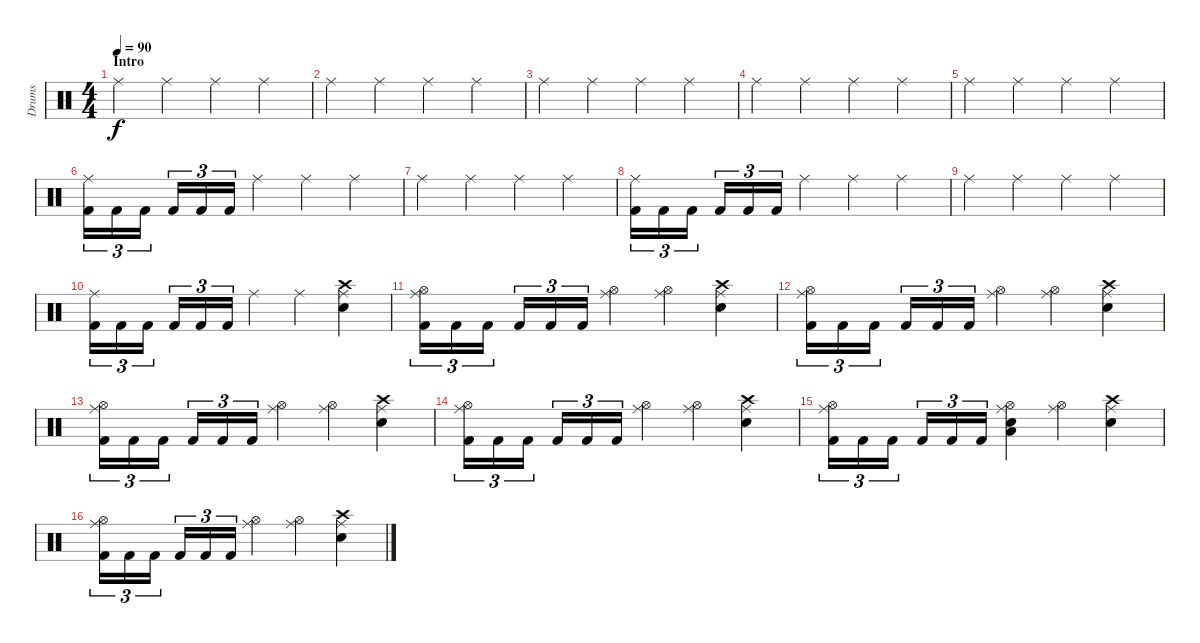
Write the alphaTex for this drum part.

\track ("Drums" "Drums") {instrument percussion}
\staff {score}
\articulation defaults
\ts (4 4)
\section ("" "Intro")
\tempo 90
\clef neutral
\ks c "Ride (middle)".4{dy f} "Ride (middle)".4 "Ride (middle)".4 "Ride (middle)".4
|
"Ride (middle)".4 "Ride (middle)".4 "Ride (middle)".4 "Ride (middle)".4 |
"Ride (middle)".4 "Ride (middle)".4 "Ride (middle)".4 "Ride (middle)".4 |
"Ride (middle)".4 "Ride (middle)".4 "Ride (middle)".4 "Ride (middle)".4 |
"Ride (middle)".4 "Ride (middle)".4 "Ride (middle)".4 "Ride (middle)".4 |
("Kick (hit) 2" "Ride (middle)").16{tu (3 2)} "Kick (hit) 2".16{tu (3 2)} "Kick (hit) 2".16{tu (3 2) beam splitsecondary} "Kick (hit) 2".16{tu (3 2)} "Kick (hit) 2".16{tu (3 2)} "Kick (hit) 2".16{tu (3 2)} "Ride (middle)".4 "Ride (middle)".4 "Ride (middle)".4 |
"Ride (middle)".4 "Ride (middle)".4 "Ride (middle)".4 "Ride (middle)".4 |
("Kick (hit) 2" "Ride (middle)").16{tu (3 2)} "Kick (hit) 2".16{tu (3 2)} "Kick (hit) 2".16{tu (3 2) beam splitsecondary} "Kick (hit) 2".16{tu (3 2)} "Kick (hit) 2".16{tu (3 2)} "Kick (hit) 2".16{tu (3 2)} "Ride (middle)".4 "Ride (middle)".4 "Ride (middle)".4 |
"Ride (middle)".4 "Ride (middle)".4 "Ride (middle)".4 "Ride (middle)".4 |
("Kick (hit) 2" "Ride (middle)").16{tu (3 2)} "Kick (hit) 2".16{tu (3 2)} "Kick (hit) 2".16{tu (3 2) beam splitsecondary} "Kick (hit) 2".16{tu (3 2)} "Kick (hit) 2".16{tu (3 2)} "Kick (hit) 2".16{tu (3 2)} "Ride (middle)".4 "Ride (middle)".4 ("Snare (hit) 2" "Ride (middle)" "Crash high (hit)").4 |
("Kick (hit) 2" "Ride (middle)" "Hi-Hat (open)").16{tu (3 2)} "Kick (hit) 2".16{tu (3 2)} "Kick (hit) 2".16{tu (3 2) beam splitsecondary} "Kick (hit) 2".16{tu (3 2)} "Kick (hit) 2".16{tu (3 2)} "Kick (hit) 2".16{tu (3 2)} ("Ride (middle)" "Hi-Hat (open)").4 ("Ride (middle)" "Hi-Hat (open)").4 ("Snare (hit) 2" "Ride (middle)" "Crash high (hit)").4 |
("Kick (hit) 2" "Ride (middle)" "Hi-Hat (open)").16{tu (3 2)} "Kick (hit) 2".16{tu (3 2)} "Kick (hit) 2".16{tu (3 2) beam splitsecondary} "Kick (hit) 2".16{tu (3 2)} "Kick (hit) 2".16{tu (3 2)} "Kick (hit) 2".16{tu (3 2)} ("Ride (middle)" "Hi-Hat (open)").4 ("Ride (middle)" "Hi-Hat (open)").4 ("Snare (hit) 2" "Ride (middle)" "Crash high (hit)").4 |
("Kick (hit) 2" "Ride (middle)" "Hi-Hat (open)").16{tu (3 2)} "Kick (hit) 2".16{tu (3 2)} "Kick (hit) 2".16{tu (3 2) beam splitsecondary} "Kick (hit) 2".16{tu (3 2)} "Kick (hit) 2".16{tu (3 2)} "Kick (hit) 2".16{tu (3 2)} ("Ride (middle)" "Hi-Hat (open)").4 ("Ride (middle)" "Hi-Hat (open)").4 ("Snare (hit) 2" "Ride (middle)" "Crash high (hit)").4 |
("Kick (hit) 2" "Ride (middle)" "Hi-Hat (open)").16{tu (3 2)} "Kick (hit) 2".16{tu (3 2)} "Kick (hit) 2".16{tu (3 2) beam splitsecondary} "Kick (hit) 2".16{tu (3 2)} "Kick (hit) 2".16{tu (3 2)} "Kick (hit) 2".16{tu (3 2)} ("Ride (middle)" "Hi-Hat (open)").4 ("Ride (middle)" "Hi-Hat (open)").4 ("Snare (hit) 2" "Ride (middle)" "Crash high (hit)").4 |
("Kick (hit) 2" "Ride (middle)" "Hi-Hat (open)").16{tu (3 2)} "Kick (hit) 2".16{tu (3 2)} "Kick (hit) 2".16{tu (3 2) beam splitsecondary} "Kick (hit) 2".16{tu (3 2)} "Kick (hit) 2".16{tu (3 2)} "Kick (hit) 2".16{tu (3 2)} ("Snare (hit) 2" "Ride (middle)" "Hi-Hat (open)" "Low Floor Tom (hit)").4 ("Ride (middle)" "Hi-Hat (open)").4 ("Snare (hit) 2" "Ride (middle)" "Crash high (hit)").4 |
("Kick (hit) 2" "Ride (middle)" "Hi-Hat (open)").16{tu (3 2)} "Kick (hit) 2".16{tu (3 2)} "Kick (hit) 2".16{tu (3 2) beam splitsecondary} "Kick (hit) 2".16{tu (3 2)} "Kick (hit) 2".16{tu (3 2)} "Kick (hit) 2".16{tu (3 2)} ("Ride (middle)" "Hi-Hat (open)").4 ("Ride (middle)" "Hi-Hat (open)").4 ("Snare (hit) 2" "Ride (middle)" "Crash high (hit)").4
